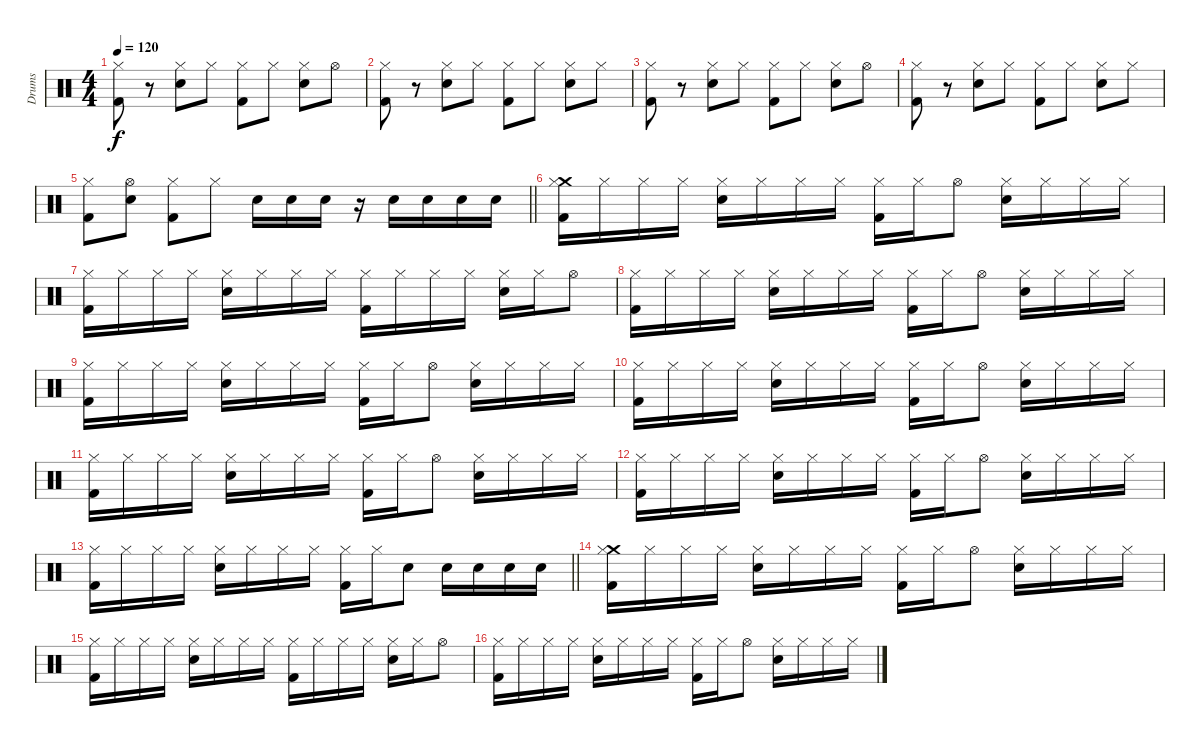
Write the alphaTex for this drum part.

\track ("Drums" "Drums") {instrument percussion}
\staff
\articulation defaults
\ts (4 4)
\tempo 120
\clef neutral
\ks c
("Hi-Hat (closed)" "Kick (hit) 2").8{dy f} r.8 ("Hi-Hat (closed)" "Snare (hit) 2").8 "Hi-Hat (closed)".8 ("Hi-Hat (closed)" "Kick (hit) 2").8 "Hi-Hat (closed)".8 ("Hi-Hat (closed)" "Snare (hit) 2").8 "Hi-Hat (open)".8 |
("Hi-Hat (closed)" "Kick (hit) 2").8 r.8 ("Hi-Hat (closed)" "Snare (hit) 2").8 "Hi-Hat (closed)".8 ("Hi-Hat (closed)" "Kick (hit) 2").8 "Hi-Hat (closed)".8 ("Hi-Hat (closed)" "Snare (hit) 2").8 "Hi-Hat (closed)".8 |
("Hi-Hat (closed)" "Kick (hit) 2").8 r.8 ("Hi-Hat (closed)" "Snare (hit) 2").8 "Hi-Hat (closed)".8 ("Hi-Hat (closed)" "Kick (hit) 2").8 "Hi-Hat (closed)".8 ("Hi-Hat (closed)" "Snare (hit) 2").8 "Hi-Hat (open)".8 |
("Hi-Hat (closed)" "Kick (hit) 2").8 r.8 ("Hi-Hat (closed)" "Snare (hit) 2").8 "Hi-Hat (closed)".8 ("Hi-Hat (closed)" "Kick (hit) 2").8 "Hi-Hat (closed)".8 ("Hi-Hat (closed)" "Snare (hit) 2").8 "Hi-Hat (closed)".8 |
\barLineRight lightlight
("Hi-Hat (closed)" "Kick (hit) 2").8 ("Hi-Hat (open)" "Snare (hit) 2").8 ("Hi-Hat (closed)" "Kick (hit) 2").8 "Hi-Hat (closed)".8 "Snare (hit) 2".16 "Snare (hit) 2".16 "Snare (hit) 2".16 r.16 "Snare (hit) 2".16 "Snare (hit) 2".16 "Snare (hit) 2".16 "Snare (hit) 2".16 |
("Crash medium (hit)" "Hi-Hat (closed)" "Kick (hit) 2").16 "Hi-Hat (closed)".16 "Hi-Hat (closed)".16 "Hi-Hat (closed)".16 ("Hi-Hat (closed)" "Snare (hit) 2").16 "Hi-Hat (closed)".16 "Hi-Hat (closed)".16 "Hi-Hat (closed)".16 ("Hi-Hat (closed)" "Kick (hit) 2").16 "Hi-Hat (closed)".16 "Hi-Hat (open)".8 ("Hi-Hat (closed)" "Snare (hit) 2").16 "Hi-Hat (closed)".16 "Hi-Hat (closed)".16 "Hi-Hat (closed)".16 |
("Hi-Hat (closed)" "Kick (hit) 2").16 "Hi-Hat (closed)".16 "Hi-Hat (closed)".16 "Hi-Hat (closed)".16 ("Hi-Hat (closed)" "Snare (hit) 2").16 "Hi-Hat (closed)".16 "Hi-Hat (closed)".16 "Hi-Hat (closed)".16 ("Hi-Hat (closed)" "Kick (hit) 2").16 "Hi-Hat (closed)".16 "Hi-Hat (closed)".16 "Hi-Hat (closed)".16 ("Hi-Hat (closed)" "Snare (hit) 2").16 "Hi-Hat (closed)".16 "Hi-Hat (open)".8 |
("Hi-Hat (closed)" "Kick (hit) 2").16 "Hi-Hat (closed)".16 "Hi-Hat (closed)".16 "Hi-Hat (closed)".16 ("Hi-Hat (closed)" "Snare (hit) 2").16 "Hi-Hat (closed)".16 "Hi-Hat (closed)".16 "Hi-Hat (closed)".16 ("Hi-Hat (closed)" "Kick (hit) 2").16 "Hi-Hat (closed)".16 "Hi-Hat (open)".8 ("Hi-Hat (closed)" "Snare (hit) 2").16 "Hi-Hat (closed)".16 "Hi-Hat (closed)".16 "Hi-Hat (closed)".16 |
("Hi-Hat (closed)" "Kick (hit) 2").16 "Hi-Hat (closed)".16 "Hi-Hat (closed)".16 "Hi-Hat (closed)".16 ("Hi-Hat (closed)" "Snare (hit) 2").16 "Hi-Hat (closed)".16 "Hi-Hat (closed)".16 "Hi-Hat (closed)".16 ("Hi-Hat (closed)" "Kick (hit) 2").16 "Hi-Hat (closed)".16 "Hi-Hat (open)".8 ("Hi-Hat (closed)" "Snare (hit) 2").16 "Hi-Hat (closed)".16 "Hi-Hat (closed)".16 "Hi-Hat (closed)".16 |
("Hi-Hat (closed)" "Kick (hit) 2").16 "Hi-Hat (closed)".16 "Hi-Hat (closed)".16 "Hi-Hat (closed)".16 ("Hi-Hat (closed)" "Snare (hit) 2").16 "Hi-Hat (closed)".16 "Hi-Hat (closed)".16 "Hi-Hat (closed)".16 ("Hi-Hat (closed)" "Kick (hit) 2").16 "Hi-Hat (closed)".16 "Hi-Hat (open)".8 ("Hi-Hat (closed)" "Snare (hit) 2").16 "Hi-Hat (closed)".16 "Hi-Hat (closed)".16 "Hi-Hat (closed)".16 |
("Hi-Hat (closed)" "Kick (hit) 2").16 "Hi-Hat (closed)".16 "Hi-Hat (closed)".16 "Hi-Hat (closed)".16 ("Hi-Hat (closed)" "Snare (hit) 2").16 "Hi-Hat (closed)".16 "Hi-Hat (closed)".16 "Hi-Hat (closed)".16 ("Hi-Hat (closed)" "Kick (hit) 2").16 "Hi-Hat (closed)".16 "Hi-Hat (open)".8 ("Hi-Hat (closed)" "Snare (hit) 2").16 "Hi-Hat (closed)".16 "Hi-Hat (closed)".16 "Hi-Hat (closed)".16 |
("Hi-Hat (closed)" "Kick (hit) 2").16 "Hi-Hat (closed)".16 "Hi-Hat (closed)".16 "Hi-Hat (closed)".16 ("Hi-Hat (closed)" "Snare (hit) 2").16 "Hi-Hat (closed)".16 "Hi-Hat (closed)".16 "Hi-Hat (closed)".16 ("Hi-Hat (closed)" "Kick (hit) 2").16 "Hi-Hat (closed)".16 "Hi-Hat (open)".8 ("Hi-Hat (closed)" "Snare (hit) 2").16 "Hi-Hat (closed)".16 "Hi-Hat (closed)".16 "Hi-Hat (closed)".16 |
\barLineRight lightlight
("Hi-Hat (closed)" "Kick (hit) 2").16 "Hi-Hat (closed)".16 "Hi-Hat (closed)".16 "Hi-Hat (closed)".16 ("Hi-Hat (closed)" "Snare (hit) 2").16 "Hi-Hat (closed)".16 "Hi-Hat (closed)".16 "Hi-Hat (closed)".16 ("Hi-Hat (closed)" "Kick (hit) 2").16 "Hi-Hat (closed)".16 "Snare (hit) 2".8 "Snare (hit) 2".16 "Snare (hit) 2".16 "Snare (hit) 2".16 "Snare (hit) 2".16 |
("Crash medium (hit)" "Hi-Hat (closed)" "Kick (hit) 2").16 "Hi-Hat (closed)".16 "Hi-Hat (closed)".16 "Hi-Hat (closed)".16 ("Hi-Hat (closed)" "Snare (hit) 2").16 "Hi-Hat (closed)".16 "Hi-Hat (closed)".16 "Hi-Hat (closed)".16 ("Hi-Hat (closed)" "Kick (hit) 2").16 "Hi-Hat (closed)".16 "Hi-Hat (open)".8 ("Hi-Hat (closed)" "Snare (hit) 2").16 "Hi-Hat (closed)".16 "Hi-Hat (closed)".16 "Hi-Hat (closed)".16 |
("Hi-Hat (closed)" "Kick (hit) 2").16 "Hi-Hat (closed)".16 "Hi-Hat (closed)".16 "Hi-Hat (closed)".16 ("Hi-Hat (closed)" "Snare (hit) 2").16 "Hi-Hat (closed)".16 "Hi-Hat (closed)".16 "Hi-Hat (closed)".16 ("Hi-Hat (closed)" "Kick (hit) 2").16 "Hi-Hat (closed)".16 "Hi-Hat (closed)".16 "Hi-Hat (closed)".16 ("Hi-Hat (closed)" "Snare (hit) 2").16 "Hi-Hat (closed)".16 "Hi-Hat (open)".8 |
("Hi-Hat (closed)" "Kick (hit) 2").16 "Hi-Hat (closed)".16 "Hi-Hat (closed)".16 "Hi-Hat (closed)".16 ("Hi-Hat (closed)" "Snare (hit) 2").16 "Hi-Hat (closed)".16 "Hi-Hat (closed)".16 "Hi-Hat (closed)".16 ("Hi-Hat (closed)" "Kick (hit) 2").16 "Hi-Hat (closed)".16 "Hi-Hat (open)".8 ("Hi-Hat (closed)" "Snare (hit) 2").16 "Hi-Hat (closed)".16 "Hi-Hat (closed)".16 "Hi-Hat (closed)".16
